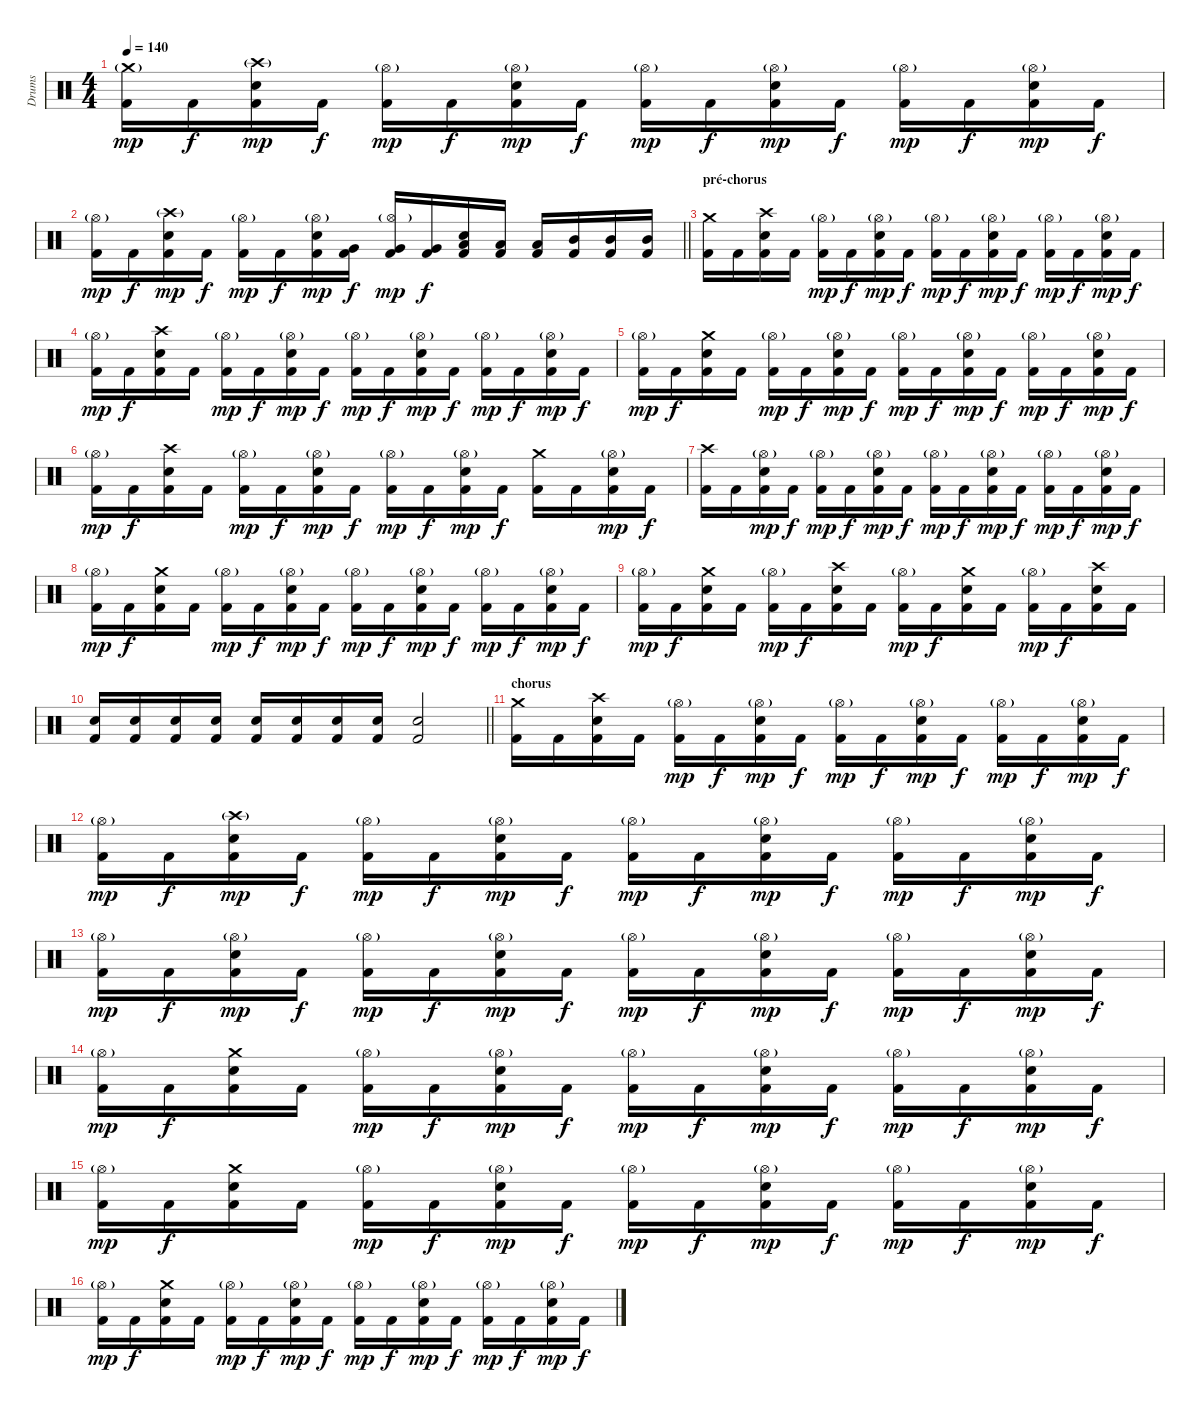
\track ("Drums" "Drums") {instrument percussion}
\staff {score}
\articulation defaults
\ts (4 4)
\tempo 140
\clef neutral
\ks c
("Crash medium (hit)"{g} "Kick (hit) 2").16{dy mp} "Kick (hit) 2".16{dy f} ("Crash high (hit)"{g} "Electric Snare (hit)" "Kick (hit) 2").16{dy mp} "Kick (hit) 2".16{dy f} ("Hi-Hat (open)"{g} "Kick (hit) 2").16{dy mp} "Kick (hit) 2".16{dy f} ("Hi-Hat (open)"{g} "Electric Snare (hit)" "Kick (hit) 2").16{dy mp} "Kick (hit) 2".16{dy f} ("Hi-Hat (open)"{g} "Kick (hit) 2").16{dy mp} "Kick (hit) 2".16{dy f} ("Hi-Hat (open)"{g} "Electric Snare (hit)" "Kick (hit) 2").16{dy mp} "Kick (hit) 2".16{dy f} ("Hi-Hat (open)"{g} "Kick (hit) 2").16{dy mp} "Kick (hit) 2".16{dy f} ("Hi-Hat (open)"{g} "Electric Snare (hit)" "Kick (hit) 2").16{dy mp} "Kick (hit) 2".16{dy f} |
\barLineRight lightlight
("Hi-Hat (open)"{g} "Kick (hit) 2").16{dy mp} "Kick (hit) 2".16{dy f} ("Crash high (hit)"{g} "Electric Snare (hit)" "Kick (hit) 2").16{dy mp} "Kick (hit) 2".16{dy f} ("Hi-Hat (open)"{g} "Kick (hit) 2").16{dy mp} "Kick (hit) 2".16{dy f} ("Hi-Hat (open)"{g} "Electric Snare (hit)" "Kick (hit) 2").16{dy mp} ("Kick (hit) 2" "Very Low Tom (hit)").16{dy f} ("Hi-Hat (open)"{g} "Kick (hit) 2" "Very Low Tom (hit)").16{dy mp} ("Kick (hit) 2" "Very Low Tom (hit)").16{dy f} ("Electric Snare (hit)" "Kick (hit) 2" "Low Tom (hit)").16 ("Kick (hit) 2" "Low Tom (hit)").16 ("Kick (hit) 2" "Low Tom (hit)").16 ("Kick (hit) 2" "Mid Tom (hit)").16 ("Kick (hit) 2" "Mid Tom (hit)").16 ("Kick (hit) 2" "Mid Tom (hit)").16 |
\section ("" "pré-chorus")
("Crash medium (hit)" "Kick (hit) 2").16 "Kick (hit) 2".16 ("Crash high (hit)" "Electric Snare (hit)" "Kick (hit) 2").16 "Kick (hit) 2".16 ("Hi-Hat (open)"{g} "Kick (hit) 2").16{dy mp} "Kick (hit) 2".16{dy f} ("Hi-Hat (open)"{g} "Electric Snare (hit)" "Kick (hit) 2").16{dy mp} "Kick (hit) 2".16{dy f} ("Hi-Hat (open)"{g} "Kick (hit) 2").16{dy mp} "Kick (hit) 2".16{dy f} ("Hi-Hat (open)"{g} "Electric Snare (hit)" "Kick (hit) 2").16{dy mp} "Kick (hit) 2".16{dy f} ("Hi-Hat (open)"{g} "Kick (hit) 2").16{dy mp} "Kick (hit) 2".16{dy f} ("Hi-Hat (open)"{g} "Electric Snare (hit)" "Kick (hit) 2").16{dy mp} "Kick (hit) 2".16{dy f} |
("Hi-Hat (open)"{g} "Kick (hit) 2").16{dy mp} "Kick (hit) 2".16{dy f} ("Crash high (hit)" "Electric Snare (hit)" "Kick (hit) 2").16 "Kick (hit) 2".16 ("Hi-Hat (open)"{g} "Kick (hit) 2").16{dy mp} "Kick (hit) 2".16{dy f} ("Hi-Hat (open)"{g} "Electric Snare (hit)" "Kick (hit) 2").16{dy mp} "Kick (hit) 2".16{dy f} ("Hi-Hat (open)"{g} "Kick (hit) 2").16{dy mp} "Kick (hit) 2".16{dy f} ("Hi-Hat (open)"{g} "Electric Snare (hit)" "Kick (hit) 2").16{dy mp} "Kick (hit) 2".16{dy f} ("Hi-Hat (open)"{g} "Kick (hit) 2").16{dy mp} "Kick (hit) 2".16{dy f} ("Hi-Hat (open)"{g} "Electric Snare (hit)" "Kick (hit) 2").16{dy mp} "Kick (hit) 2".16{dy f} |
("Hi-Hat (open)"{g} "Kick (hit) 2").16{dy mp} "Kick (hit) 2".16{dy f} ("Crash medium (hit)" "Electric Snare (hit)" "Kick (hit) 2").16 "Kick (hit) 2".16 ("Hi-Hat (open)"{g} "Kick (hit) 2").16{dy mp} "Kick (hit) 2".16{dy f} ("Hi-Hat (open)"{g} "Electric Snare (hit)" "Kick (hit) 2").16{dy mp} "Kick (hit) 2".16{dy f} ("Hi-Hat (open)"{g} "Kick (hit) 2").16{dy mp} "Kick (hit) 2".16{dy f} ("Hi-Hat (open)"{g} "Electric Snare (hit)" "Kick (hit) 2").16{dy mp} "Kick (hit) 2".16{dy f} ("Hi-Hat (open)"{g} "Kick (hit) 2").16{dy mp} "Kick (hit) 2".16{dy f} ("Hi-Hat (open)"{g} "Electric Snare (hit)" "Kick (hit) 2").16{dy mp} "Kick (hit) 2".16{dy f} |
("Hi-Hat (open)"{g} "Kick (hit) 2").16{dy mp} "Kick (hit) 2".16{dy f} ("Crash high (hit)" "Electric Snare (hit)" "Kick (hit) 2").16 "Kick (hit) 2".16 ("Hi-Hat (open)"{g} "Kick (hit) 2").16{dy mp} "Kick (hit) 2".16{dy f} ("Hi-Hat (open)"{g} "Electric Snare (hit)" "Kick (hit) 2").16{dy mp} "Kick (hit) 2".16{dy f} ("Hi-Hat (open)"{g} "Kick (hit) 2").16{dy mp} "Kick (hit) 2".16{dy f} ("Hi-Hat (open)"{g} "Electric Snare (hit)" "Kick (hit) 2").16{dy mp} "Kick (hit) 2".16{dy f} ("Crash medium (hit)" "Kick (hit) 2").16 "Kick (hit) 2".16 ("Hi-Hat (open)"{g} "Electric Snare (hit)" "Kick (hit) 2").16{dy mp} "Kick (hit) 2".16{dy f} |
("Crash high (hit)" "Kick (hit) 2").16 "Kick (hit) 2".16 ("Hi-Hat (open)"{g} "Electric Snare (hit)" "Kick (hit) 2").16{dy mp} "Kick (hit) 2".16{dy f} ("Hi-Hat (open)"{g} "Kick (hit) 2").16{dy mp} "Kick (hit) 2".16{dy f} ("Hi-Hat (open)"{g} "Electric Snare (hit)" "Kick (hit) 2").16{dy mp} "Kick (hit) 2".16{dy f} ("Hi-Hat (open)"{g} "Kick (hit) 2").16{dy mp} "Kick (hit) 2".16{dy f} ("Hi-Hat (open)"{g} "Electric Snare (hit)" "Kick (hit) 2").16{dy mp} "Kick (hit) 2".16{dy f} ("Hi-Hat (open)"{g} "Kick (hit) 2").16{dy mp} "Kick (hit) 2".16{dy f} ("Hi-Hat (open)"{g} "Electric Snare (hit)" "Kick (hit) 2").16{dy mp} "Kick (hit) 2".16{dy f} |
("Hi-Hat (open)"{g} "Kick (hit) 2").16{dy mp} "Kick (hit) 2".16{dy f} ("Crash medium (hit)" "Electric Snare (hit)" "Kick (hit) 2").16 "Kick (hit) 2".16 ("Hi-Hat (open)"{g} "Kick (hit) 2").16{dy mp} "Kick (hit) 2".16{dy f} ("Hi-Hat (open)"{g} "Electric Snare (hit)" "Kick (hit) 2").16{dy mp} "Kick (hit) 2".16{dy f} ("Hi-Hat (open)"{g} "Kick (hit) 2").16{dy mp} "Kick (hit) 2".16{dy f} ("Hi-Hat (open)"{g} "Electric Snare (hit)" "Kick (hit) 2").16{dy mp} "Kick (hit) 2".16{dy f} ("Hi-Hat (open)"{g} "Kick (hit) 2").16{dy mp} "Kick (hit) 2".16{dy f} ("Hi-Hat (open)"{g} "Electric Snare (hit)" "Kick (hit) 2").16{dy mp} "Kick (hit) 2".16{dy f} |
("Hi-Hat (open)"{g} "Kick (hit) 2").16{dy mp} "Kick (hit) 2".16{dy f} ("Crash medium (hit)" "Electric Snare (hit)" "Kick (hit) 2").16 "Kick (hit) 2".16 ("Hi-Hat (open)"{g} "Kick (hit) 2").16{dy mp} "Kick (hit) 2".16{dy f} ("Crash high (hit)" "Electric Snare (hit)" "Kick (hit) 2").16 "Kick (hit) 2".16 ("Hi-Hat (open)"{g} "Kick (hit) 2").16{dy mp} "Kick (hit) 2".16{dy f} ("Crash medium (hit)" "Electric Snare (hit)" "Kick (hit) 2").16 "Kick (hit) 2".16 ("Hi-Hat (open)"{g} "Kick (hit) 2").16{dy mp} "Kick (hit) 2".16{dy f} ("Crash high (hit)" "Electric Snare (hit)" "Kick (hit) 2").16 "Kick (hit) 2".16 |
\barLineRight lightlight
("Electric Snare (hit)" "Kick (hit) 2").16 ("Electric Snare (hit)" "Kick (hit) 2").16 ("Electric Snare (hit)" "Kick (hit) 2").16 ("Electric Snare (hit)" "Kick (hit) 2").16 ("Electric Snare (hit)" "Kick (hit) 2").16 ("Electric Snare (hit)" "Kick (hit) 2").16 ("Electric Snare (hit)" "Kick (hit) 2").16 ("Electric Snare (hit)" "Kick (hit) 2").16 ("Electric Snare (hit)" "Kick (hit) 2").2 |
\section ("" "chorus")
("Crash medium (hit)" "Kick (hit) 2").16 "Kick (hit) 2".16 ("Crash high (hit)" "Electric Snare (hit)" "Kick (hit) 2").16 "Kick (hit) 2".16 ("Hi-Hat (open)"{g} "Kick (hit) 2").16{dy mp} "Kick (hit) 2".16{dy f} ("Hi-Hat (open)"{g} "Electric Snare (hit)" "Kick (hit) 2").16{dy mp} "Kick (hit) 2".16{dy f} ("Hi-Hat (open)"{g} "Kick (hit) 2").16{dy mp} "Kick (hit) 2".16{dy f} ("Hi-Hat (open)"{g} "Electric Snare (hit)" "Kick (hit) 2").16{dy mp} "Kick (hit) 2".16{dy f} ("Hi-Hat (open)"{g} "Kick (hit) 2").16{dy mp} "Kick (hit) 2".16{dy f} ("Hi-Hat (open)"{g} "Electric Snare (hit)" "Kick (hit) 2").16{dy mp} "Kick (hit) 2".16{dy f} |
("Hi-Hat (open)"{g} "Kick (hit) 2").16{dy mp} "Kick (hit) 2".16{dy f} ("Crash high (hit)"{g} "Electric Snare (hit)" "Kick (hit) 2").16{dy mp} "Kick (hit) 2".16{dy f} ("Hi-Hat (open)"{g} "Kick (hit) 2").16{dy mp} "Kick (hit) 2".16{dy f} ("Hi-Hat (open)"{g} "Electric Snare (hit)" "Kick (hit) 2").16{dy mp} "Kick (hit) 2".16{dy f} ("Hi-Hat (open)"{g} "Kick (hit) 2").16{dy mp} "Kick (hit) 2".16{dy f} ("Hi-Hat (open)"{g} "Electric Snare (hit)" "Kick (hit) 2").16{dy mp} "Kick (hit) 2".16{dy f} ("Hi-Hat (open)"{g} "Kick (hit) 2").16{dy mp} "Kick (hit) 2".16{dy f} ("Hi-Hat (open)"{g} "Electric Snare (hit)" "Kick (hit) 2").16{dy mp} "Kick (hit) 2".16{dy f} |
("Hi-Hat (open)"{g} "Kick (hit) 2").16{dy mp} "Kick (hit) 2".16{dy f} ("Hi-Hat (open)"{g} "Electric Snare (hit)" "Kick (hit) 2").16{dy mp} "Kick (hit) 2".16{dy f} ("Hi-Hat (open)"{g} "Kick (hit) 2").16{dy mp} "Kick (hit) 2".16{dy f} ("Hi-Hat (open)"{g} "Electric Snare (hit)" "Kick (hit) 2").16{dy mp} "Kick (hit) 2".16{dy f} ("Hi-Hat (open)"{g} "Kick (hit) 2").16{dy mp} "Kick (hit) 2".16{dy f} ("Hi-Hat (open)"{g} "Electric Snare (hit)" "Kick (hit) 2").16{dy mp} "Kick (hit) 2".16{dy f} ("Hi-Hat (open)"{g} "Kick (hit) 2").16{dy mp} "Kick (hit) 2".16{dy f} ("Hi-Hat (open)"{g} "Electric Snare (hit)" "Kick (hit) 2").16{dy mp} "Kick (hit) 2".16{dy f} |
("Hi-Hat (open)"{g} "Kick (hit) 2").16{dy mp} "Kick (hit) 2".16{dy f} ("Crash medium (hit)" "Electric Snare (hit)" "Kick (hit) 2").16 "Kick (hit) 2".16 ("Hi-Hat (open)"{g} "Kick (hit) 2").16{dy mp} "Kick (hit) 2".16{dy f} ("Hi-Hat (open)"{g} "Electric Snare (hit)" "Kick (hit) 2").16{dy mp} "Kick (hit) 2".16{dy f} ("Hi-Hat (open)"{g} "Kick (hit) 2").16{dy mp} "Kick (hit) 2".16{dy f} ("Hi-Hat (open)"{g} "Electric Snare (hit)" "Kick (hit) 2").16{dy mp} "Kick (hit) 2".16{dy f} ("Hi-Hat (open)"{g} "Kick (hit) 2").16{dy mp} "Kick (hit) 2".16{dy f} ("Hi-Hat (open)"{g} "Electric Snare (hit)" "Kick (hit) 2").16{dy mp} "Kick (hit) 2".16{dy f} |
("Hi-Hat (open)"{g} "Kick (hit) 2").16{dy mp} "Kick (hit) 2".16{dy f} ("Crash medium (hit)" "Electric Snare (hit)" "Kick (hit) 2").16 "Kick (hit) 2".16 ("Hi-Hat (open)"{g} "Kick (hit) 2").16{dy mp} "Kick (hit) 2".16{dy f} ("Hi-Hat (open)"{g} "Electric Snare (hit)" "Kick (hit) 2").16{dy mp} "Kick (hit) 2".16{dy f} ("Hi-Hat (open)"{g} "Kick (hit) 2").16{dy mp} "Kick (hit) 2".16{dy f} ("Hi-Hat (open)"{g} "Electric Snare (hit)" "Kick (hit) 2").16{dy mp} "Kick (hit) 2".16{dy f} ("Hi-Hat (open)"{g} "Kick (hit) 2").16{dy mp} "Kick (hit) 2".16{dy f} ("Hi-Hat (open)"{g} "Electric Snare (hit)" "Kick (hit) 2").16{dy mp} "Kick (hit) 2".16{dy f} |
("Hi-Hat (open)"{g} "Kick (hit) 2").16{dy mp} "Kick (hit) 2".16{dy f} ("Crash medium (hit)" "Electric Snare (hit)" "Kick (hit) 2").16 "Kick (hit) 2".16 ("Hi-Hat (open)"{g} "Kick (hit) 2").16{dy mp} "Kick (hit) 2".16{dy f} ("Hi-Hat (open)"{g} "Electric Snare (hit)" "Kick (hit) 2").16{dy mp} "Kick (hit) 2".16{dy f} ("Hi-Hat (open)"{g} "Kick (hit) 2").16{dy mp} "Kick (hit) 2".16{dy f} ("Hi-Hat (open)"{g} "Electric Snare (hit)" "Kick (hit) 2").16{dy mp} "Kick (hit) 2".16{dy f} ("Hi-Hat (open)"{g} "Kick (hit) 2").16{dy mp} "Kick (hit) 2".16{dy f} ("Hi-Hat (open)"{g} "Electric Snare (hit)" "Kick (hit) 2").16{dy mp} "Kick (hit) 2".16{dy f}
